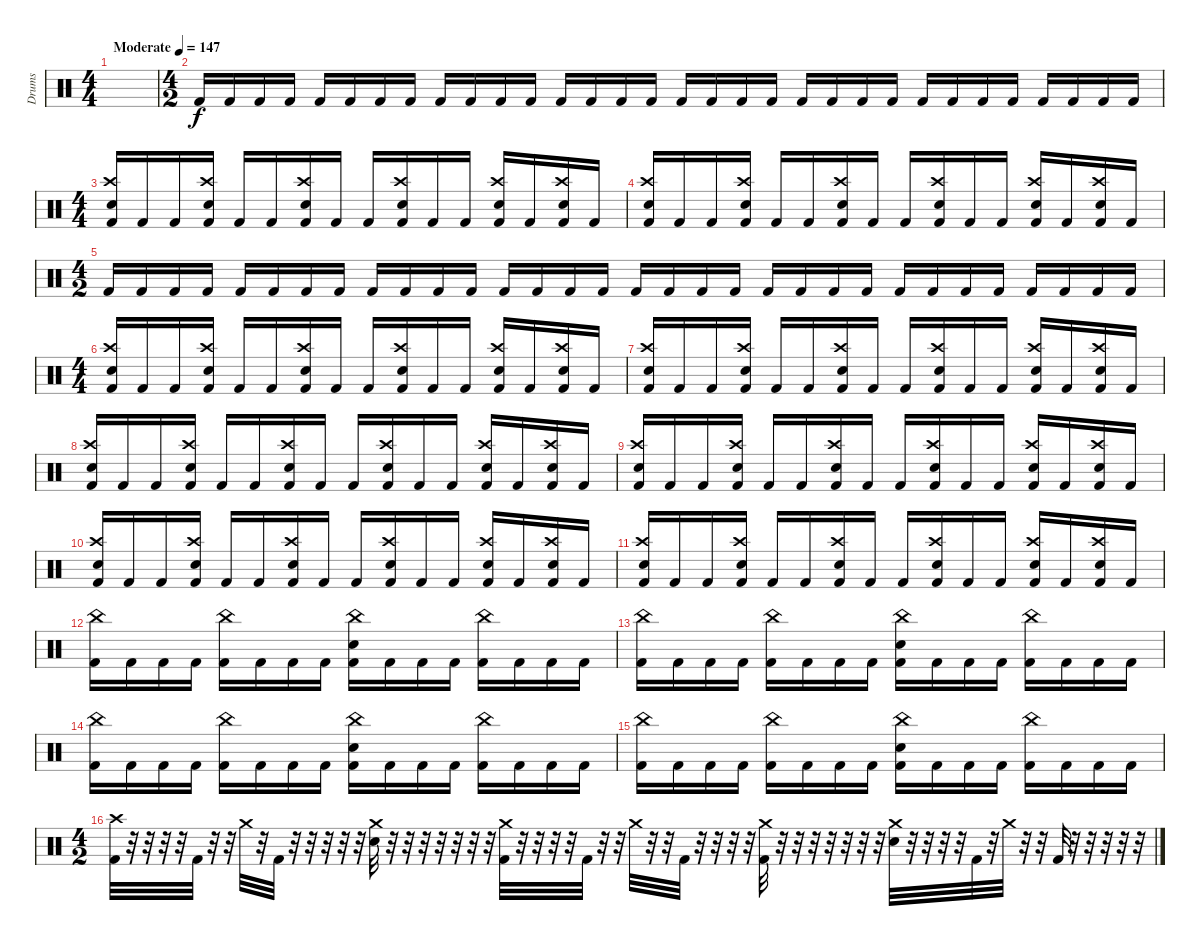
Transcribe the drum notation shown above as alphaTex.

\track ("Drums" "Drums") {instrument percussion}
\staff {score}
\articulation defaults
\ts (4 4)
\tempo (147 "Moderate")
\clef neutral
\ks c
|
\ts (4 2)
"Kick (hit) 2".16 "Kick (hit) 2".16 "Kick (hit) 2".16 "Kick (hit) 2".16 "Kick (hit) 2".16 "Kick (hit) 2".16 "Kick (hit) 2".16 "Kick (hit) 2".16 "Kick (hit) 2".16 "Kick (hit) 2".16 "Kick (hit) 2".16 "Kick (hit) 2".16 "Kick (hit) 2".16 "Kick (hit) 2".16 "Kick (hit) 2".16 "Kick (hit) 2".16 "Kick (hit) 2".16 "Kick (hit) 2".16 "Kick (hit) 2".16 "Kick (hit) 2".16 "Kick (hit) 2".16 "Kick (hit) 2".16 "Kick (hit) 2".16 "Kick (hit) 2".16 "Kick (hit) 2".16 "Kick (hit) 2".16 "Kick (hit) 2".16 "Kick (hit) 2".16 "Kick (hit) 2".16 "Kick (hit) 2".16 "Kick (hit) 2".16 "Kick (hit) 2".16 |
\ts (4 4)
("Crash high (hit)" "Electric Snare (hit)" "Kick (hit) 2").16 "Kick (hit) 2".16 "Kick (hit) 2".16 ("Crash high (hit)" "Electric Snare (hit)" "Kick (hit) 2").16 "Kick (hit) 2".16 "Kick (hit) 2".16 ("Crash high (hit)" "Electric Snare (hit)" "Kick (hit) 2").16 "Kick (hit) 2".16 "Kick (hit) 2".16 ("Crash high (hit)" "Electric Snare (hit)" "Kick (hit) 2").16 "Kick (hit) 2".16 "Kick (hit) 2".16 ("Crash high (hit)" "Electric Snare (hit)" "Kick (hit) 2").16 "Kick (hit) 2".16 ("Crash high (hit)" "Electric Snare (hit)" "Kick (hit) 2").16 "Kick (hit) 2".16 |
("Crash high (hit)" "Electric Snare (hit)" "Kick (hit) 2").16 "Kick (hit) 2".16 "Kick (hit) 2".16 ("Crash high (hit)" "Electric Snare (hit)" "Kick (hit) 2").16 "Kick (hit) 2".16 "Kick (hit) 2".16 ("Crash high (hit)" "Electric Snare (hit)" "Kick (hit) 2").16 "Kick (hit) 2".16 "Kick (hit) 2".16 ("Crash high (hit)" "Electric Snare (hit)" "Kick (hit) 2").16 "Kick (hit) 2".16 "Kick (hit) 2".16 ("Crash high (hit)" "Electric Snare (hit)" "Kick (hit) 2").16 "Kick (hit) 2".16 ("Crash high (hit)" "Electric Snare (hit)" "Kick (hit) 2").16 "Kick (hit) 2".16 |
\ts (4 2)
"Kick (hit) 2".16 "Kick (hit) 2".16 "Kick (hit) 2".16 "Kick (hit) 2".16 "Kick (hit) 2".16 "Kick (hit) 2".16 "Kick (hit) 2".16 "Kick (hit) 2".16 "Kick (hit) 2".16 "Kick (hit) 2".16 "Kick (hit) 2".16 "Kick (hit) 2".16 "Kick (hit) 2".16 "Kick (hit) 2".16 "Kick (hit) 2".16 "Kick (hit) 2".16 "Kick (hit) 2".16 "Kick (hit) 2".16 "Kick (hit) 2".16 "Kick (hit) 2".16 "Kick (hit) 2".16 "Kick (hit) 2".16 "Kick (hit) 2".16 "Kick (hit) 2".16 "Kick (hit) 2".16 "Kick (hit) 2".16 "Kick (hit) 2".16 "Kick (hit) 2".16 "Kick (hit) 2".16 "Kick (hit) 2".16 "Kick (hit) 2".16 "Kick (hit) 2".16 |
\ts (4 4)
("Crash high (hit)" "Electric Snare (hit)" "Kick (hit) 2").16 "Kick (hit) 2".16 "Kick (hit) 2".16 ("Crash high (hit)" "Electric Snare (hit)" "Kick (hit) 2").16 "Kick (hit) 2".16 "Kick (hit) 2".16 ("Crash high (hit)" "Electric Snare (hit)" "Kick (hit) 2").16 "Kick (hit) 2".16 "Kick (hit) 2".16 ("Crash high (hit)" "Electric Snare (hit)" "Kick (hit) 2").16 "Kick (hit) 2".16 "Kick (hit) 2".16 ("Crash high (hit)" "Electric Snare (hit)" "Kick (hit) 2").16 "Kick (hit) 2".16 ("Crash high (hit)" "Electric Snare (hit)" "Kick (hit) 2").16 "Kick (hit) 2".16 |
("Crash high (hit)" "Electric Snare (hit)" "Kick (hit) 2").16 "Kick (hit) 2".16 "Kick (hit) 2".16 ("Crash high (hit)" "Electric Snare (hit)" "Kick (hit) 2").16 "Kick (hit) 2".16 "Kick (hit) 2".16 ("Crash high (hit)" "Electric Snare (hit)" "Kick (hit) 2").16 "Kick (hit) 2".16 "Kick (hit) 2".16 ("Crash high (hit)" "Electric Snare (hit)" "Kick (hit) 2").16 "Kick (hit) 2".16 "Kick (hit) 2".16 ("Crash high (hit)" "Electric Snare (hit)" "Kick (hit) 2").16 "Kick (hit) 2".16 ("Crash high (hit)" "Electric Snare (hit)" "Kick (hit) 2").16 "Kick (hit) 2".16 |
("Crash high (hit)" "Electric Snare (hit)" "Kick (hit) 2").16 "Kick (hit) 2".16 "Kick (hit) 2".16 ("Crash high (hit)" "Electric Snare (hit)" "Kick (hit) 2").16 "Kick (hit) 2".16 "Kick (hit) 2".16 ("Crash high (hit)" "Electric Snare (hit)" "Kick (hit) 2").16 "Kick (hit) 2".16 "Kick (hit) 2".16 ("Crash high (hit)" "Electric Snare (hit)" "Kick (hit) 2").16 "Kick (hit) 2".16 "Kick (hit) 2".16 ("Crash high (hit)" "Electric Snare (hit)" "Kick (hit) 2").16 "Kick (hit) 2".16 ("Crash high (hit)" "Electric Snare (hit)" "Kick (hit) 2").16 "Kick (hit) 2".16 |
("Crash high (hit)" "Electric Snare (hit)" "Kick (hit) 2").16 "Kick (hit) 2".16 "Kick (hit) 2".16 ("Crash high (hit)" "Electric Snare (hit)" "Kick (hit) 2").16 "Kick (hit) 2".16 "Kick (hit) 2".16 ("Crash high (hit)" "Electric Snare (hit)" "Kick (hit) 2").16 "Kick (hit) 2".16 "Kick (hit) 2".16 ("Crash high (hit)" "Electric Snare (hit)" "Kick (hit) 2").16 "Kick (hit) 2".16 "Kick (hit) 2".16 ("Crash high (hit)" "Electric Snare (hit)" "Kick (hit) 2").16 "Kick (hit) 2".16 ("Crash high (hit)" "Electric Snare (hit)" "Kick (hit) 2").16 "Kick (hit) 2".16 |
("Crash high (hit)" "Electric Snare (hit)" "Kick (hit) 2").16 "Kick (hit) 2".16 "Kick (hit) 2".16 ("Crash high (hit)" "Electric Snare (hit)" "Kick (hit) 2").16 "Kick (hit) 2".16 "Kick (hit) 2".16 ("Crash high (hit)" "Electric Snare (hit)" "Kick (hit) 2").16 "Kick (hit) 2".16 "Kick (hit) 2".16 ("Crash high (hit)" "Electric Snare (hit)" "Kick (hit) 2").16 "Kick (hit) 2".16 "Kick (hit) 2".16 ("Crash high (hit)" "Electric Snare (hit)" "Kick (hit) 2").16 "Kick (hit) 2".16 ("Crash high (hit)" "Electric Snare (hit)" "Kick (hit) 2").16 "Kick (hit) 2".16 |
("Crash high (hit)" "Electric Snare (hit)" "Kick (hit) 2").16 "Kick (hit) 2".16 "Kick (hit) 2".16 ("Crash high (hit)" "Electric Snare (hit)" "Kick (hit) 2").16 "Kick (hit) 2".16 "Kick (hit) 2".16 ("Crash high (hit)" "Electric Snare (hit)" "Kick (hit) 2").16 "Kick (hit) 2".16 "Kick (hit) 2".16 ("Crash high (hit)" "Electric Snare (hit)" "Kick (hit) 2").16 "Kick (hit) 2".16 "Kick (hit) 2".16 ("Crash high (hit)" "Electric Snare (hit)" "Kick (hit) 2").16 "Kick (hit) 2".16 ("Crash high (hit)" "Electric Snare (hit)" "Kick (hit) 2").16 "Kick (hit) 2".16 |
("China (hit)" "Kick (hit) 2").16 "Kick (hit) 2".16 "Kick (hit) 2".16 "Kick (hit) 2".16 ("China (hit)" "Kick (hit) 2").16 "Kick (hit) 2".16 "Kick (hit) 2".16 "Kick (hit) 2".16 ("China (hit)" "Electric Snare (hit)" "Kick (hit) 2").16 "Kick (hit) 2".16 "Kick (hit) 2".16 "Kick (hit) 2".16 ("China (hit)" "Kick (hit) 2").16 "Kick (hit) 2".16 "Kick (hit) 2".16 "Kick (hit) 2".16 |
("China (hit)" "Kick (hit) 2").16 "Kick (hit) 2".16 "Kick (hit) 2".16 "Kick (hit) 2".16 ("China (hit)" "Kick (hit) 2").16 "Kick (hit) 2".16 "Kick (hit) 2".16 "Kick (hit) 2".16 ("China (hit)" "Electric Snare (hit)" "Kick (hit) 2").16 "Kick (hit) 2".16 "Kick (hit) 2".16 "Kick (hit) 2".16 ("China (hit)" "Kick (hit) 2").16 "Kick (hit) 2".16 "Kick (hit) 2".16 "Kick (hit) 2".16 |
("China (hit)" "Kick (hit) 2").16 "Kick (hit) 2".16 "Kick (hit) 2".16 "Kick (hit) 2".16 ("China (hit)" "Kick (hit) 2").16 "Kick (hit) 2".16 "Kick (hit) 2".16 "Kick (hit) 2".16 ("China (hit)" "Electric Snare (hit)" "Kick (hit) 2").16 "Kick (hit) 2".16 "Kick (hit) 2".16 "Kick (hit) 2".16 ("China (hit)" "Kick (hit) 2").16 "Kick (hit) 2".16 "Kick (hit) 2".16 "Kick (hit) 2".16 |
("China (hit)" "Kick (hit) 2").16 "Kick (hit) 2".16 "Kick (hit) 2".16 "Kick (hit) 2".16 ("China (hit)" "Kick (hit) 2").16 "Kick (hit) 2".16 "Kick (hit) 2".16 "Kick (hit) 2".16 ("China (hit)" "Electric Snare (hit)" "Kick (hit) 2").16 "Kick (hit) 2".16 "Kick (hit) 2".16 "Kick (hit) 2".16 ("China (hit)" "Kick (hit) 2").16 "Kick (hit) 2".16 "Kick (hit) 2".16 "Kick (hit) 2".16 |
\ts (4 2)
("Crash high (hit)" "Kick (hit) 2").32 r.32 r.32 r.32 r.32 "Kick (hit) 2".32 r.32 r.32 "Crash medium (hit)".32 r.32 "Kick (hit) 2".32 r.32 r.32 r.32 r.32 r.32 ("Crash medium (hit)" "Electric Snare (hit)").32 r.32 r.32 r.32 r.32 r.32 r.32 r.32 ("Crash medium (hit)" "Kick (hit) 2").32 r.32 r.32 r.32 r.32 "Kick (hit) 2".32 r.32 r.32 "Crash medium (hit)".32 r.32 r.32 "Kick (hit) 2".32 r.32 r.32 r.32 r.32 ("Crash medium (hit)" "Kick (hit) 2").32 r.32 r.32 r.32 r.32 r.32 r.32 r.32 ("Crash medium (hit)" "Electric Snare (hit)").32 r.32 r.32 r.32 r.32 "Kick (hit) 2".32 r.32 "Crash medium (hit)".32 r.32 r.32 "Kick (hit) 2".32 r.32 r.32 r.32 r.32 r.32
